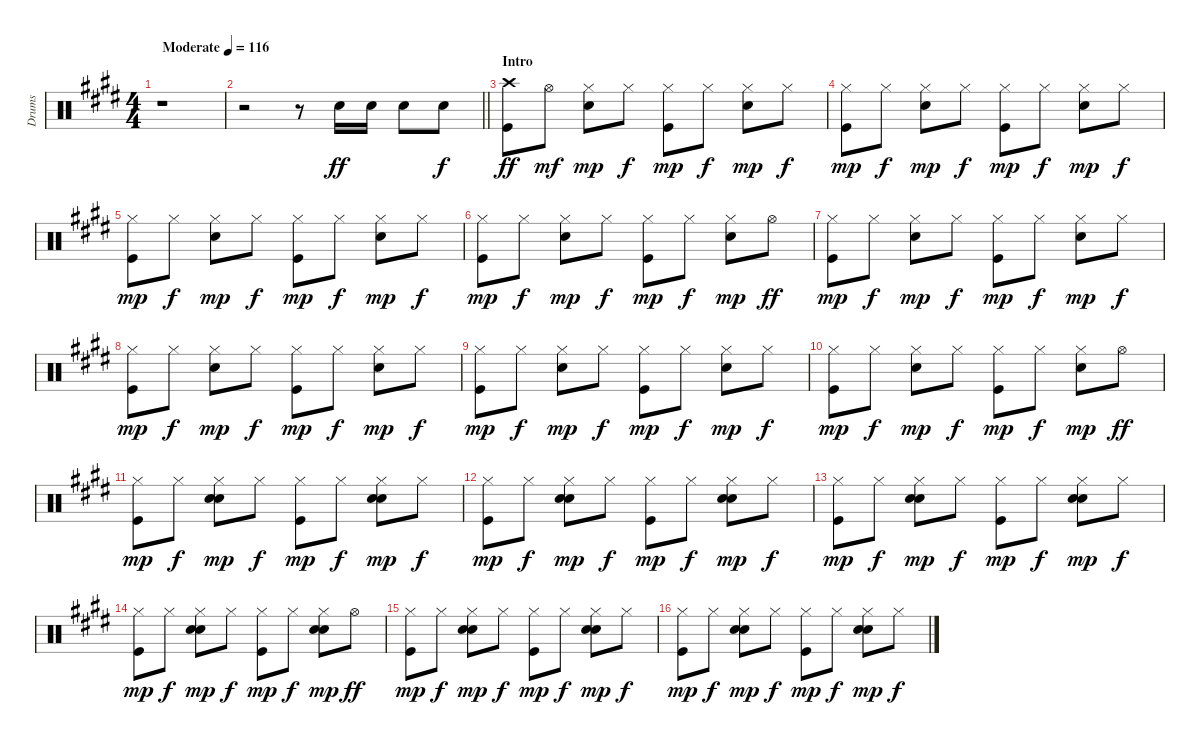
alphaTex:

\track ("Drums" "Drums") {instrument percussion}
\staff {score}
\articulation defaults
\ts (4 4)
\tempo (116 "Moderate")
\clef neutral
\ks e
r.1{dy ff} |
\barLineRight lightlight
r.2 r.8 "Electric Snare (hit)".16 "Electric Snare (hit)".16 "Electric Snare (hit)".8 "Electric Snare (hit)".8{dy f} |
\section ("" "Intro")
("Kick (hit)" "Crash high (hit)").8{dy ff} "Hi-Hat (open)".8{dy mf} ("Electric Snare (hit)" "Hi-Hat (closed)").8{dy mp} "Hi-Hat (closed)".8{dy f} ("Kick (hit)" "Hi-Hat (closed)").8{dy mp} "Hi-Hat (closed)".8{dy f} ("Electric Snare (hit)" "Hi-Hat (closed)").8{dy mp} "Hi-Hat (closed)".8{dy f} |
("Kick (hit)" "Hi-Hat (closed)").8{dy mp} "Hi-Hat (closed)".8{dy f} ("Electric Snare (hit)" "Hi-Hat (closed)").8{dy mp} "Hi-Hat (closed)".8{dy f} ("Kick (hit)" "Hi-Hat (closed)").8{dy mp} "Hi-Hat (closed)".8{dy f} ("Electric Snare (hit)" "Hi-Hat (closed)").8{dy mp} "Hi-Hat (closed)".8{dy f} |
("Kick (hit)" "Hi-Hat (closed)").8{dy mp} "Hi-Hat (closed)".8{dy f} ("Electric Snare (hit)" "Hi-Hat (closed)").8{dy mp} "Hi-Hat (closed)".8{dy f} ("Kick (hit)" "Hi-Hat (closed)").8{dy mp} "Hi-Hat (closed)".8{dy f} ("Electric Snare (hit)" "Hi-Hat (closed)").8{dy mp} "Hi-Hat (closed)".8{dy f} |
("Kick (hit)" "Hi-Hat (closed)").8{dy mp} "Hi-Hat (closed)".8{dy f} ("Electric Snare (hit)" "Hi-Hat (closed)").8{dy mp} "Hi-Hat (closed)".8{dy f} ("Kick (hit)" "Hi-Hat (closed)").8{dy mp} "Hi-Hat (closed)".8{dy f} ("Electric Snare (hit)" "Hi-Hat (closed)").8{dy mp} "Hi-Hat (open)".8{dy ff} |
("Kick (hit)" "Hi-Hat (closed)").8{dy mp} "Hi-Hat (closed)".8{dy f} ("Electric Snare (hit)" "Hi-Hat (closed)").8{dy mp} "Hi-Hat (closed)".8{dy f} ("Kick (hit)" "Hi-Hat (closed)").8{dy mp} "Hi-Hat (closed)".8{dy f} ("Electric Snare (hit)" "Hi-Hat (closed)").8{dy mp} "Hi-Hat (closed)".8{dy f} |
("Kick (hit)" "Hi-Hat (closed)").8{dy mp} "Hi-Hat (closed)".8{dy f} ("Electric Snare (hit)" "Hi-Hat (closed)").8{dy mp} "Hi-Hat (closed)".8{dy f} ("Kick (hit)" "Hi-Hat (closed)").8{dy mp} "Hi-Hat (closed)".8{dy f} ("Electric Snare (hit)" "Hi-Hat (closed)").8{dy mp} "Hi-Hat (closed)".8{dy f} |
("Kick (hit)" "Hi-Hat (closed)").8{dy mp} "Hi-Hat (closed)".8{dy f} ("Electric Snare (hit)" "Hi-Hat (closed)").8{dy mp} "Hi-Hat (closed)".8{dy f} ("Kick (hit)" "Hi-Hat (closed)").8{dy mp} "Hi-Hat (closed)".8{dy f} ("Electric Snare (hit)" "Hi-Hat (closed)").8{dy mp} "Hi-Hat (closed)".8{dy f} |
("Kick (hit)" "Hi-Hat (closed)").8{dy mp} "Hi-Hat (closed)".8{dy f} ("Electric Snare (hit)" "Hi-Hat (closed)").8{dy mp} "Hi-Hat (closed)".8{dy f} ("Kick (hit)" "Hi-Hat (closed)").8{dy mp} "Hi-Hat (closed)".8{dy f} ("Electric Snare (hit)" "Hi-Hat (closed)").8{dy mp} "Hi-Hat (open)".8{dy ff} |
("Kick (hit)" "Hi-Hat (closed)").8{dy mp} "Hi-Hat (closed)".8{dy f} ("Hand Clap (hit)" "Electric Snare (hit)" "Hi-Hat (closed)").8{dy mp} "Hi-Hat (closed)".8{dy f} ("Kick (hit)" "Hi-Hat (closed)").8{dy mp} "Hi-Hat (closed)".8{dy f} ("Hand Clap (hit)" "Electric Snare (hit)" "Hi-Hat (closed)").8{dy mp} "Hi-Hat (closed)".8{dy f} |
("Kick (hit)" "Hi-Hat (closed)").8{dy mp} "Hi-Hat (closed)".8{dy f} ("Hand Clap (hit)" "Electric Snare (hit)" "Hi-Hat (closed)").8{dy mp} "Hi-Hat (closed)".8{dy f} ("Kick (hit)" "Hi-Hat (closed)").8{dy mp} "Hi-Hat (closed)".8{dy f} ("Hand Clap (hit)" "Electric Snare (hit)" "Hi-Hat (closed)").8{dy mp} "Hi-Hat (closed)".8{dy f} |
("Kick (hit)" "Hi-Hat (closed)").8{dy mp} "Hi-Hat (closed)".8{dy f} ("Hand Clap (hit)" "Electric Snare (hit)" "Hi-Hat (closed)").8{dy mp} "Hi-Hat (closed)".8{dy f} ("Kick (hit)" "Hi-Hat (closed)").8{dy mp} "Hi-Hat (closed)".8{dy f} ("Hand Clap (hit)" "Electric Snare (hit)" "Hi-Hat (closed)").8{dy mp} "Hi-Hat (closed)".8{dy f} |
("Kick (hit)" "Hi-Hat (closed)").8{dy mp} "Hi-Hat (closed)".8{dy f} ("Hand Clap (hit)" "Electric Snare (hit)" "Hi-Hat (closed)").8{dy mp} "Hi-Hat (closed)".8{dy f} ("Kick (hit)" "Hi-Hat (closed)").8{dy mp} "Hi-Hat (closed)".8{dy f} ("Hand Clap (hit)" "Electric Snare (hit)" "Hi-Hat (closed)").8{dy mp} "Hi-Hat (open)".8{dy ff} |
("Kick (hit)" "Hi-Hat (closed)").8{dy mp} "Hi-Hat (closed)".8{dy f} ("Hand Clap (hit)" "Electric Snare (hit)" "Hi-Hat (closed)").8{dy mp} "Hi-Hat (closed)".8{dy f} ("Kick (hit)" "Hi-Hat (closed)").8{dy mp} "Hi-Hat (closed)".8{dy f} ("Hand Clap (hit)" "Electric Snare (hit)" "Hi-Hat (closed)").8{dy mp} "Hi-Hat (closed)".8{dy f} |
("Kick (hit)" "Hi-Hat (closed)").8{dy mp} "Hi-Hat (closed)".8{dy f} ("Hand Clap (hit)" "Electric Snare (hit)" "Hi-Hat (closed)").8{dy mp} "Hi-Hat (closed)".8{dy f} ("Kick (hit)" "Hi-Hat (closed)").8{dy mp} "Hi-Hat (closed)".8{dy f} ("Hand Clap (hit)" "Electric Snare (hit)" "Hi-Hat (closed)").8{dy mp} "Hi-Hat (closed)".8{dy f}
